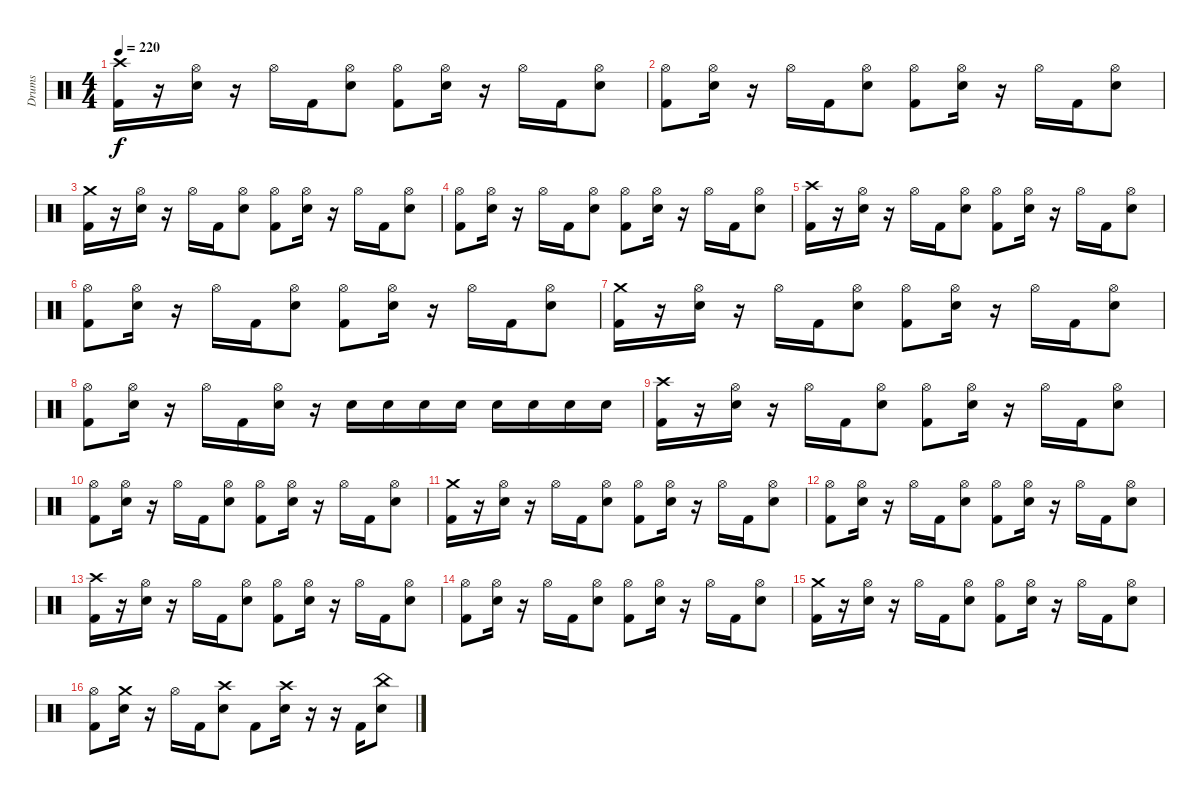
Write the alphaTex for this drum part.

\track ("Drums" "Drums") {instrument percussion}
\staff {score}
\articulation defaults
\ts (4 4)
\tempo 220
\clef neutral
\ks c
("Crash high (hit)" "Kick (hit) 2").16{dy f} r.16 ("Electric Snare (hit)" "Hi-Hat (open)").16 r.16 "Hi-Hat (open)".16 "Kick (hit) 2".16 ("Electric Snare (hit)" "Hi-Hat (open)").8 ("Kick (hit) 2" "Hi-Hat (open)").8 ("Electric Snare (hit)" "Hi-Hat (open)").16 r.16 "Hi-Hat (open)".16 "Kick (hit) 2".16 ("Electric Snare (hit)" "Hi-Hat (open)").8 |
("Kick (hit) 2" "Hi-Hat (open)").8 ("Electric Snare (hit)" "Hi-Hat (open)").16 r.16 "Hi-Hat (open)".16 "Kick (hit) 2".16 ("Electric Snare (hit)" "Hi-Hat (open)").8 ("Kick (hit) 2" "Hi-Hat (open)").8 ("Electric Snare (hit)" "Hi-Hat (open)").16 r.16 "Hi-Hat (open)".16 "Kick (hit) 2".16 ("Electric Snare (hit)" "Hi-Hat (open)").8 |
("Kick (hit) 2" "Crash medium (hit)").16 r.16 ("Electric Snare (hit)" "Hi-Hat (open)").16 r.16 "Hi-Hat (open)".16 "Kick (hit) 2".16 ("Electric Snare (hit)" "Hi-Hat (open)").8 ("Kick (hit) 2" "Hi-Hat (open)").8 ("Electric Snare (hit)" "Hi-Hat (open)").16 r.16 "Hi-Hat (open)".16 "Kick (hit) 2".16 ("Electric Snare (hit)" "Hi-Hat (open)").8 |
("Kick (hit) 2" "Hi-Hat (open)").8 ("Electric Snare (hit)" "Hi-Hat (open)").16 r.16 "Hi-Hat (open)".16 "Kick (hit) 2".16 ("Electric Snare (hit)" "Hi-Hat (open)").8 ("Kick (hit) 2" "Hi-Hat (open)").8 ("Electric Snare (hit)" "Hi-Hat (open)").16 r.16 "Hi-Hat (open)".16 "Kick (hit) 2".16 ("Electric Snare (hit)" "Hi-Hat (open)").8 |
("Crash high (hit)" "Kick (hit) 2").16 r.16 ("Electric Snare (hit)" "Hi-Hat (open)").16 r.16 "Hi-Hat (open)".16 "Kick (hit) 2".16 ("Electric Snare (hit)" "Hi-Hat (open)").8 ("Kick (hit) 2" "Hi-Hat (open)").8 ("Electric Snare (hit)" "Hi-Hat (open)").16 r.16 "Hi-Hat (open)".16 "Kick (hit) 2".16 ("Electric Snare (hit)" "Hi-Hat (open)").8 |
("Kick (hit) 2" "Hi-Hat (open)").8 ("Electric Snare (hit)" "Hi-Hat (open)").16 r.16 "Hi-Hat (open)".16 "Kick (hit) 2".16 ("Electric Snare (hit)" "Hi-Hat (open)").8 ("Kick (hit) 2" "Hi-Hat (open)").8 ("Electric Snare (hit)" "Hi-Hat (open)").16 r.16 "Hi-Hat (open)".16 "Kick (hit) 2".16 ("Electric Snare (hit)" "Hi-Hat (open)").8 |
("Kick (hit) 2" "Crash medium (hit)").16 r.16 ("Electric Snare (hit)" "Hi-Hat (open)").16 r.16 "Hi-Hat (open)".16 "Kick (hit) 2".16 ("Electric Snare (hit)" "Hi-Hat (open)").8 ("Kick (hit) 2" "Hi-Hat (open)").8 ("Electric Snare (hit)" "Hi-Hat (open)").16 r.16 "Hi-Hat (open)".16 "Kick (hit) 2".16 ("Electric Snare (hit)" "Hi-Hat (open)").8 |
("Kick (hit) 2" "Hi-Hat (open)").8 ("Electric Snare (hit)" "Hi-Hat (open)").16 r.16 "Hi-Hat (open)".16 "Kick (hit) 2".16 ("Electric Snare (hit)" "Hi-Hat (open)").16 r.16 "Electric Snare (hit)".16 "Electric Snare (hit)".16 "Electric Snare (hit)".16 "Electric Snare (hit)".16 "Electric Snare (hit)".16 "Electric Snare (hit)".16 "Electric Snare (hit)".16 "Electric Snare (hit)".16 |
("Crash high (hit)" "Kick (hit) 2").16 r.16 ("Electric Snare (hit)" "Hi-Hat (open)").16 r.16 "Hi-Hat (open)".16 "Kick (hit) 2".16 ("Electric Snare (hit)" "Hi-Hat (open)").8 ("Kick (hit) 2" "Hi-Hat (open)").8 ("Electric Snare (hit)" "Hi-Hat (open)").16 r.16 "Hi-Hat (open)".16 "Kick (hit) 2".16 ("Electric Snare (hit)" "Hi-Hat (open)").8 |
("Kick (hit) 2" "Hi-Hat (open)").8 ("Electric Snare (hit)" "Hi-Hat (open)").16 r.16 "Hi-Hat (open)".16 "Kick (hit) 2".16 ("Electric Snare (hit)" "Hi-Hat (open)").8 ("Kick (hit) 2" "Hi-Hat (open)").8 ("Electric Snare (hit)" "Hi-Hat (open)").16 r.16 "Hi-Hat (open)".16 "Kick (hit) 2".16 ("Electric Snare (hit)" "Hi-Hat (open)").8 |
("Kick (hit) 2" "Crash medium (hit)").16 r.16 ("Electric Snare (hit)" "Hi-Hat (open)").16 r.16 "Hi-Hat (open)".16 "Kick (hit) 2".16 ("Electric Snare (hit)" "Hi-Hat (open)").8 ("Kick (hit) 2" "Hi-Hat (open)").8 ("Electric Snare (hit)" "Hi-Hat (open)").16 r.16 "Hi-Hat (open)".16 "Kick (hit) 2".16 ("Electric Snare (hit)" "Hi-Hat (open)").8 |
("Kick (hit) 2" "Hi-Hat (open)").8 ("Electric Snare (hit)" "Hi-Hat (open)").16 r.16 "Hi-Hat (open)".16 "Kick (hit) 2".16 ("Electric Snare (hit)" "Hi-Hat (open)").8 ("Kick (hit) 2" "Hi-Hat (open)").8 ("Electric Snare (hit)" "Hi-Hat (open)").16 r.16 "Hi-Hat (open)".16 "Kick (hit) 2".16 ("Electric Snare (hit)" "Hi-Hat (open)").8 |
("Crash high (hit)" "Kick (hit) 2").16 r.16 ("Electric Snare (hit)" "Hi-Hat (open)").16 r.16 "Hi-Hat (open)".16 "Kick (hit) 2".16 ("Electric Snare (hit)" "Hi-Hat (open)").8 ("Kick (hit) 2" "Hi-Hat (open)").8 ("Electric Snare (hit)" "Hi-Hat (open)").16 r.16 "Hi-Hat (open)".16 "Kick (hit) 2".16 ("Electric Snare (hit)" "Hi-Hat (open)").8 |
("Kick (hit) 2" "Hi-Hat (open)").8 ("Electric Snare (hit)" "Hi-Hat (open)").16 r.16 "Hi-Hat (open)".16 "Kick (hit) 2".16 ("Electric Snare (hit)" "Hi-Hat (open)").8 ("Kick (hit) 2" "Hi-Hat (open)").8 ("Electric Snare (hit)" "Hi-Hat (open)").16 r.16 "Hi-Hat (open)".16 "Kick (hit) 2".16 ("Electric Snare (hit)" "Hi-Hat (open)").8 |
("Kick (hit) 2" "Crash medium (hit)").16 r.16 ("Electric Snare (hit)" "Hi-Hat (open)").16 r.16 "Hi-Hat (open)".16 "Kick (hit) 2".16 ("Electric Snare (hit)" "Hi-Hat (open)").8 ("Kick (hit) 2" "Hi-Hat (open)").8 ("Electric Snare (hit)" "Hi-Hat (open)").16 r.16 "Hi-Hat (open)".16 "Kick (hit) 2".16 ("Electric Snare (hit)" "Hi-Hat (open)").8 |
("Kick (hit) 2" "Hi-Hat (open)").8 ("Electric Snare (hit)" "Crash medium (hit)").16 r.16 "Hi-Hat (open)".16 "Kick (hit) 2".16 ("Electric Snare (hit)" "Crash high (hit)").8 "Kick (hit) 2".8 ("Electric Snare (hit)" "Crash high (hit)").16 r.16 r.16 "Kick (hit) 2".16 ("Electric Snare (hit)" "China (hit)").8
